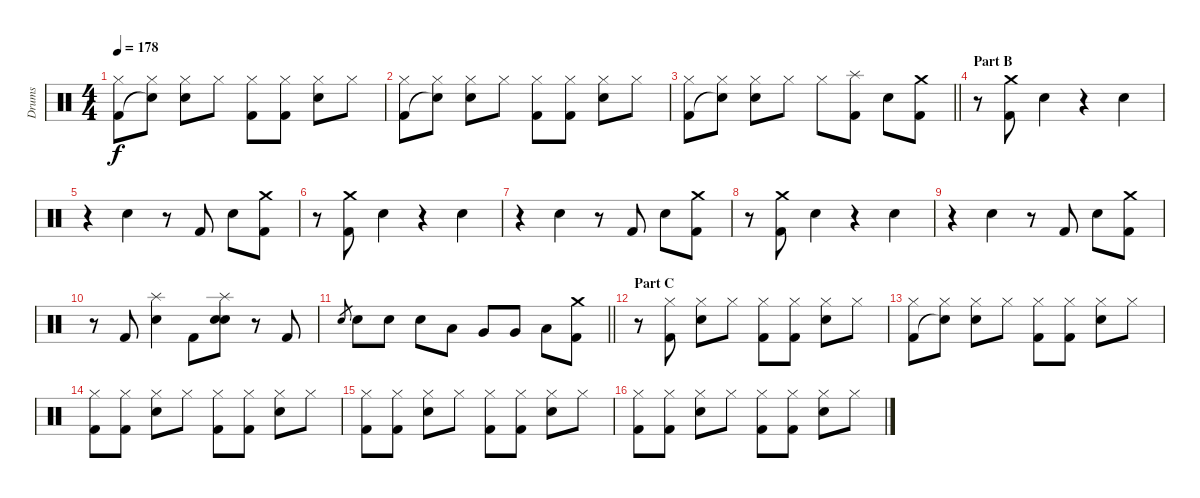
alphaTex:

\track ("Drums" "Drums") {instrument percussion}
\staff {score}
\articulation defaults
\ts (4 4)
\tempo 178
\clef neutral
\ks c
("Hi-Hat (closed)" "Kick (hit) 2").8{dy f} ("Hi-Hat (closed)" "Snare (hit)"{t}).8 ("Hi-Hat (closed)" "Electric Snare (hit)").8 "Hi-Hat (closed)".8 ("Hi-Hat (closed)" "Kick (hit) 2").8 ("Hi-Hat (closed)" "Kick (hit) 2").8 ("Hi-Hat (closed)" "Electric Snare (hit)").8 "Hi-Hat (closed)".8 |
("Hi-Hat (closed)" "Kick (hit) 2").8 ("Hi-Hat (closed)" "Snare (hit)"{t}).8 ("Hi-Hat (closed)" "Electric Snare (hit)").8 "Hi-Hat (closed)".8 ("Hi-Hat (closed)" "Kick (hit) 2").8 ("Hi-Hat (closed)" "Kick (hit) 2").8 ("Hi-Hat (closed)" "Electric Snare (hit)").8 "Hi-Hat (closed)".8 |
\barLineRight lightlight
("Hi-Hat (closed)" "Kick (hit) 2").8 ("Hi-Hat (closed)" "Snare (hit)"{t}).8 ("Hi-Hat (closed)" "Electric Snare (hit)").8 "Hi-Hat (closed)".8 "Hi-Hat (closed)".8 ("Splash (hit)" "Kick (hit) 2").8 "Electric Snare (hit)".8 ("Crash medium (hit)" "Kick (hit) 2").8 |
\section ("" "Part B")
r.8 ("Crash medium (hit)" "Kick (hit) 2").8 "Electric Snare (hit)".4 r.4 "Electric Snare (hit)".4 |
r.4 "Electric Snare (hit)".4 r.8 "Kick (hit) 2".8 "Electric Snare (hit)".8 ("Crash medium (hit)" "Kick (hit) 2").8 |
r.8 ("Crash medium (hit)" "Kick (hit) 2").8 "Electric Snare (hit)".4 r.4 "Electric Snare (hit)".4 |
r.4 "Electric Snare (hit)".4 r.8 "Kick (hit) 2".8 "Electric Snare (hit)".8 ("Crash medium (hit)" "Kick (hit) 2").8 |
r.8 ("Crash medium (hit)" "Kick (hit) 2").8 "Electric Snare (hit)".4 r.4 "Electric Snare (hit)".4 |
r.4 "Electric Snare (hit)".4 r.8 "Kick (hit) 2".8 "Electric Snare (hit)".8 ("Crash medium (hit)" "Kick (hit) 2").8 |
r.8 "Kick (hit) 2".8 ("Splash (hit)" "Electric Snare (hit)").4 "Kick (hit) 2".8 ("Splash (hit)" "Electric Snare (hit)" "Snare (hit)").8 r.8 "Kick (hit) 2".8 |
\barLineRight lightlight "Electric Snare (hit)".8{gr} "Electric Snare (hit)".8 "Electric Snare (hit)".8 "Electric Snare (hit)".8 "Low Tom (hit)".8 "Very Low Tom (hit)".8 "Very Low Tom (hit)".8 "Low Floor Tom (hit)".8
("Crash medium (hit)" "Kick (hit) 2").8 |
\section ("" "Part C")
r.8 ("Hi-Hat (closed)" "Kick (hit) 2").8 ("Hi-Hat (closed)" "Electric Snare (hit)").8 "Hi-Hat (closed)".8 ("Hi-Hat (closed)" "Kick (hit) 2").8 ("Hi-Hat (closed)" "Kick (hit) 2").8 ("Hi-Hat (closed)" "Electric Snare (hit)").8 "Hi-Hat (closed)".8 |
("Hi-Hat (closed)" "Kick (hit) 2").8 ("Hi-Hat (closed)" "Snare (hit)"{t}).8 ("Hi-Hat (closed)" "Electric Snare (hit)").8 "Hi-Hat (closed)".8 ("Hi-Hat (closed)" "Kick (hit) 2").8 ("Hi-Hat (closed)" "Kick (hit) 2").8 ("Hi-Hat (closed)" "Electric Snare (hit)").8 "Hi-Hat (closed)".8 |
("Hi-Hat (closed)" "Kick (hit) 2").8 ("Hi-Hat (closed)" "Kick (hit) 2").8 ("Hi-Hat (closed)" "Electric Snare (hit)").8 "Hi-Hat (closed)".8 ("Hi-Hat (closed)" "Kick (hit) 2").8 ("Hi-Hat (closed)" "Kick (hit) 2").8 ("Hi-Hat (closed)" "Electric Snare (hit)").8 "Hi-Hat (closed)".8 |
("Hi-Hat (closed)" "Kick (hit) 2").8 ("Hi-Hat (closed)" "Kick (hit) 2").8 ("Hi-Hat (closed)" "Electric Snare (hit)").8 "Hi-Hat (closed)".8 ("Hi-Hat (closed)" "Kick (hit) 2").8 ("Hi-Hat (closed)" "Kick (hit) 2").8 ("Hi-Hat (closed)" "Electric Snare (hit)").8 "Hi-Hat (closed)".8 |
("Hi-Hat (closed)" "Kick (hit) 2").8 ("Hi-Hat (closed)" "Kick (hit) 2").8 ("Hi-Hat (closed)" "Electric Snare (hit)").8 "Hi-Hat (closed)".8 ("Hi-Hat (closed)" "Kick (hit) 2").8 ("Hi-Hat (closed)" "Kick (hit) 2").8 ("Hi-Hat (closed)" "Electric Snare (hit)").8 "Hi-Hat (closed)".8
